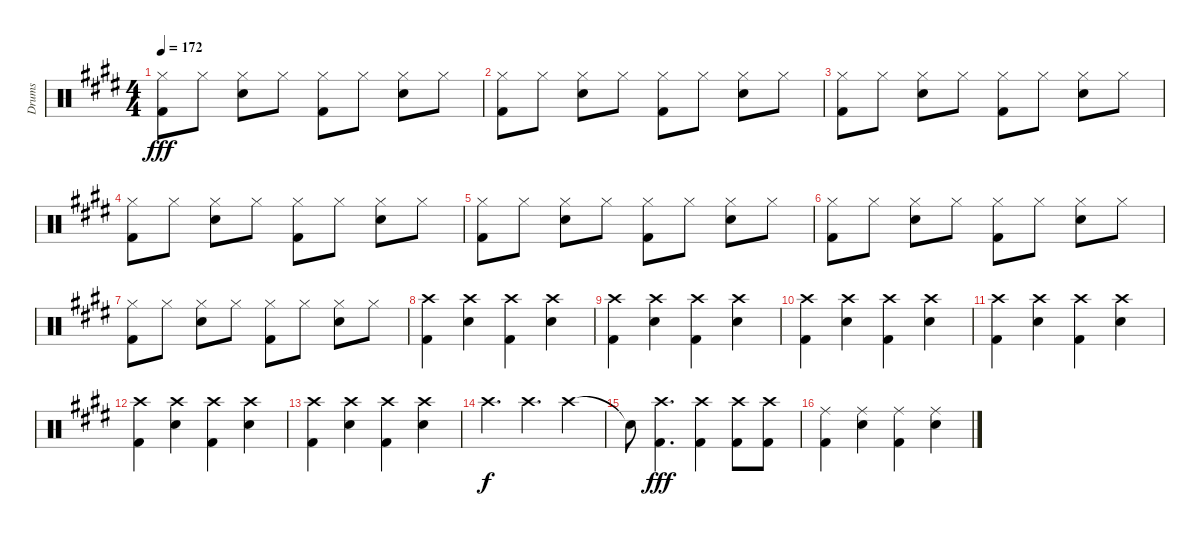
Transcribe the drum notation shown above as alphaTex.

\track ("Drums" "Drums") {instrument percussion}
\staff {score}
\articulation defaults
\ts (4 4)
\tempo 172
\clef neutral
\ks e
("Hi-Hat (closed)" "Kick (hit) 2").8{dy fff} "Hi-Hat (closed)".8 ("Hi-Hat (closed)" "Electric Snare (hit)").8 "Hi-Hat (closed)".8 ("Hi-Hat (closed)" "Kick (hit) 2").8 "Hi-Hat (closed)".8 ("Hi-Hat (closed)" "Electric Snare (hit)").8 "Hi-Hat (closed)".8 |
("Hi-Hat (closed)" "Kick (hit) 2").8 "Hi-Hat (closed)".8 ("Hi-Hat (closed)" "Electric Snare (hit)").8 "Hi-Hat (closed)".8 ("Hi-Hat (closed)" "Kick (hit) 2").8 "Hi-Hat (closed)".8 ("Hi-Hat (closed)" "Electric Snare (hit)").8 "Hi-Hat (closed)".8 |
("Hi-Hat (closed)" "Kick (hit) 2").8 "Hi-Hat (closed)".8 ("Hi-Hat (closed)" "Electric Snare (hit)").8 "Hi-Hat (closed)".8 ("Hi-Hat (closed)" "Kick (hit) 2").8 "Hi-Hat (closed)".8 ("Hi-Hat (closed)" "Electric Snare (hit)").8 "Hi-Hat (closed)".8 |
("Hi-Hat (closed)" "Kick (hit) 2").8 "Hi-Hat (closed)".8 ("Hi-Hat (closed)" "Electric Snare (hit)").8 "Hi-Hat (closed)".8 ("Hi-Hat (closed)" "Kick (hit) 2").8 "Hi-Hat (closed)".8 ("Hi-Hat (closed)" "Electric Snare (hit)").8 "Hi-Hat (closed)".8 |
("Hi-Hat (closed)" "Kick (hit) 2").8 "Hi-Hat (closed)".8 ("Hi-Hat (closed)" "Electric Snare (hit)").8 "Hi-Hat (closed)".8 ("Hi-Hat (closed)" "Kick (hit) 2").8 "Hi-Hat (closed)".8 ("Hi-Hat (closed)" "Electric Snare (hit)").8 "Hi-Hat (closed)".8 |
("Hi-Hat (closed)" "Kick (hit) 2").8 "Hi-Hat (closed)".8 ("Hi-Hat (closed)" "Electric Snare (hit)").8 "Hi-Hat (closed)".8 ("Hi-Hat (closed)" "Kick (hit) 2").8 "Hi-Hat (closed)".8 ("Hi-Hat (closed)" "Electric Snare (hit)").8 "Hi-Hat (closed)".8 |
("Hi-Hat (closed)" "Kick (hit) 2").8 "Hi-Hat (closed)".8 ("Hi-Hat (closed)" "Electric Snare (hit)").8 "Hi-Hat (closed)".8 ("Hi-Hat (closed)" "Kick (hit) 2").8 "Hi-Hat (closed)".8 ("Hi-Hat (closed)" "Electric Snare (hit)").8 "Hi-Hat (closed)".8 |
("Crash high (hit)" "Kick (hit) 2").4 ("Crash high (hit)" "Electric Snare (hit)").4 ("Crash high (hit)" "Kick (hit) 2").4 ("Crash high (hit)" "Electric Snare (hit)").4 |
("Crash high (hit)" "Kick (hit) 2").4 ("Crash high (hit)" "Electric Snare (hit)").4 ("Crash high (hit)" "Kick (hit) 2").4 ("Crash high (hit)" "Electric Snare (hit)").4 |
("Crash high (hit)" "Kick (hit) 2").4 ("Crash high (hit)" "Electric Snare (hit)").4 ("Crash high (hit)" "Kick (hit) 2").4 ("Crash high (hit)" "Electric Snare (hit)").4 |
("Crash high (hit)" "Kick (hit) 2").4 ("Crash high (hit)" "Electric Snare (hit)").4 ("Crash high (hit)" "Kick (hit) 2").4 ("Crash high (hit)" "Electric Snare (hit)").4 |
("Crash high (hit)" "Kick (hit) 2").4 ("Crash high (hit)" "Electric Snare (hit)").4 ("Crash high (hit)" "Kick (hit) 2").4 ("Crash high (hit)" "Electric Snare (hit)").4 |
("Crash high (hit)" "Kick (hit) 2").4 ("Crash high (hit)" "Electric Snare (hit)").4 ("Crash high (hit)" "Kick (hit) 2").4 ("Crash high (hit)" "Electric Snare (hit)").4 |
"Crash high (hit)".4{d dy f} "Crash high (hit)".4{d} "Crash high (hit)".4 |
"Snare (hit)"{t}.8 ("Crash high (hit)" "Kick (hit) 2").4{d dy fff} ("Crash high (hit)" "Kick (hit) 2").4 ("Crash high (hit)" "Kick (hit) 2").8 ("Crash high (hit)" "Kick (hit) 2").8 |
("Ride (middle)" "Kick (hit) 2").4 ("Ride (middle)" "Electric Snare (hit)").4 ("Ride (middle)" "Kick (hit) 2").4 ("Ride (middle)" "Electric Snare (hit)").4
